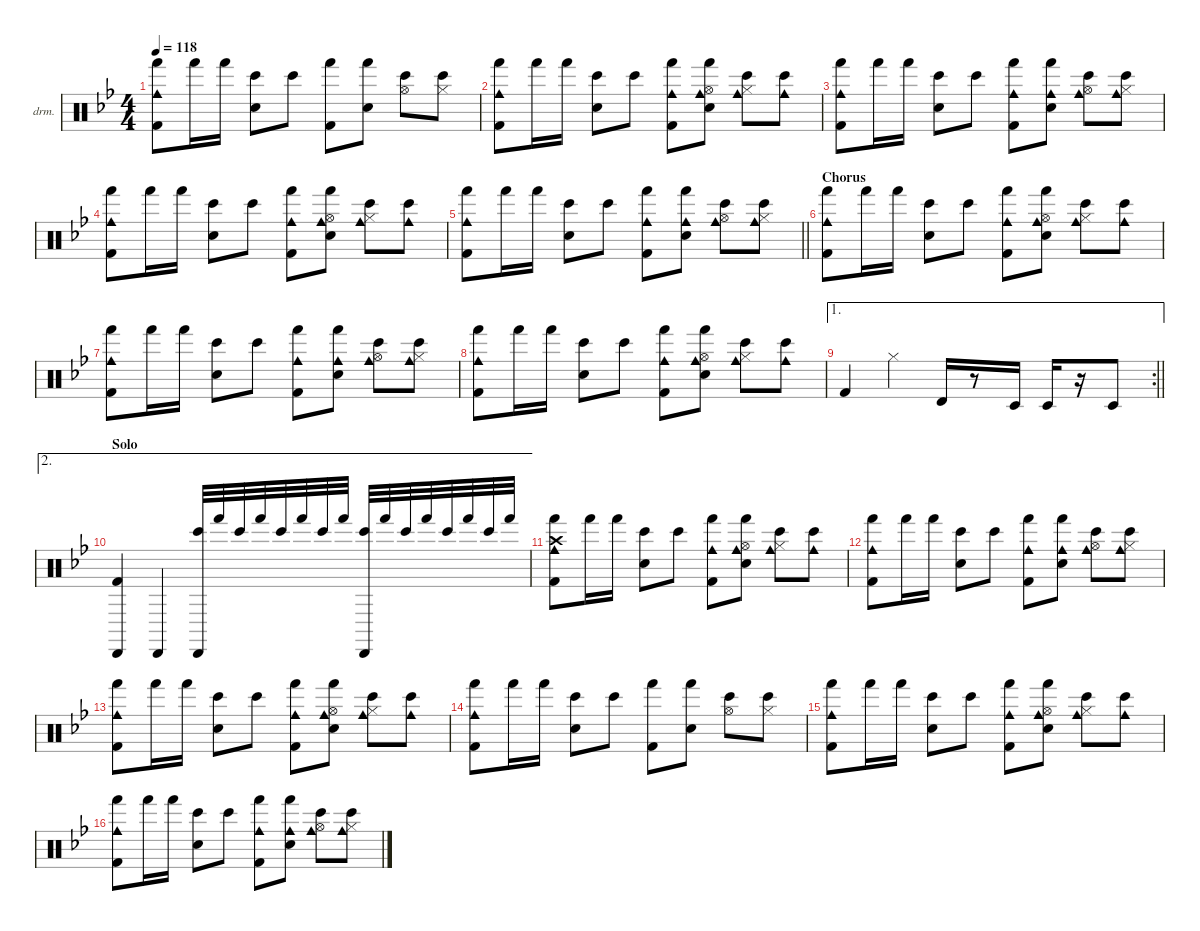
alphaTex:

\defaultSystemsLayout 4
\hideDynamics
\bracketExtendMode nobrackets
\firstSystemTrackNameOrientation horizontal
\otherSystemsTrackNameOrientation horizontal
\track ("Percussion" "drm.") {instrument percussion}
\staff {score}
\articulation defaults
\ts (4 4)
\tempo 118
\clef neutral
\ks gminor
("Cowbell medium (hit)"{acc forcenatural} "Hand (hit)"{acc forcenatural} "Kick (hit) 2"{acc forcenatural}).8{dy f} "Hand (hit)"{acc forcenatural}.16 "Hand (hit)"{acc forcenatural}.16 ("Bongo High (hit)"{acc forcenatural} "Snare (hit) 2"{acc forcenatural}).8 "Bongo High (hit)"{acc forcenatural}.8 ("Hand (hit)"{acc forcenatural} "Kick (hit) 2"{acc forcenatural}).8 ("Hand (hit)"{acc forcenatural} "Snare (hit) 2"{acc forcenatural}).8 ("Bongo High (hit)"{acc forcenatural} "Hi-Hat (open)"{acc forcenatural}).8 ("Bongo High (hit)"{acc forcenatural} "Hi-Hat (closed)"{acc forcenatural}).8 |
("Cowbell medium (hit)"{acc forcenatural} "Hand (hit)"{acc forcenatural} "Kick (hit) 2"{acc forcenatural}).8 "Hand (hit)"{acc forcenatural}.16 "Hand (hit)"{acc forcenatural}.16 ("Bongo High (hit)"{acc forcenatural} "Snare (hit) 2"{acc forcenatural}).8 "Bongo High (hit)"{acc forcenatural}.8 ("Cowbell medium (hit)"{acc forcenatural} "Hand (hit)"{acc forcenatural} "Kick (hit) 2"{acc forcenatural}).8 ("Cowbell medium (hit)"{acc forcenatural} "Hand (hit)"{acc forcenatural} "Snare (hit) 2"{acc forcenatural} "Hi-Hat (open)"{acc forcenatural}).8 ("Cowbell medium (hit)"{acc forcenatural} "Bongo High (hit)"{acc forcenatural} "Hi-Hat (closed)"{acc forcenatural}).8 ("Cowbell medium (hit)"{acc forcenatural} "Bongo High (hit)"{acc forcenatural}).8 |
("Cowbell medium (hit)"{acc forcenatural} "Hand (hit)"{acc forcenatural} "Kick (hit) 2"{acc forcenatural}).8 "Hand (hit)"{acc forcenatural}.16 "Hand (hit)"{acc forcenatural}.16 ("Bongo High (hit)"{acc forcenatural} "Snare (hit) 2"{acc forcenatural}).8 "Bongo High (hit)"{acc forcenatural}.8 ("Cowbell medium (hit)"{acc forcenatural} "Hand (hit)"{acc forcenatural} "Kick (hit) 2"{acc forcenatural}).8 ("Cowbell medium (hit)"{acc forcenatural} "Hand (hit)"{acc forcenatural} "Snare (hit) 2"{acc forcenatural}).8 ("Cowbell medium (hit)"{acc forcenatural} "Bongo High (hit)"{acc forcenatural} "Hi-Hat (open)"{acc forcenatural}).8 ("Cowbell medium (hit)"{acc forcenatural} "Bongo High (hit)"{acc forcenatural} "Hi-Hat (closed)"{acc forcenatural}).8 |
("Cowbell medium (hit)"{acc forcenatural} "Hand (hit)"{acc forcenatural} "Kick (hit) 2"{acc forcenatural}).8 "Hand (hit)"{acc forcenatural}.16 "Hand (hit)"{acc forcenatural}.16 ("Bongo High (hit)"{acc forcenatural} "Snare (hit) 2"{acc forcenatural}).8 "Bongo High (hit)"{acc forcenatural}.8 ("Cowbell medium (hit)"{acc forcenatural} "Hand (hit)"{acc forcenatural} "Kick (hit) 2"{acc forcenatural}).8 ("Cowbell medium (hit)"{acc forcenatural} "Hand (hit)"{acc forcenatural} "Snare (hit) 2"{acc forcenatural} "Hi-Hat (open)"{acc forcenatural}).8 ("Cowbell medium (hit)"{acc forcenatural} "Bongo High (hit)"{acc forcenatural} "Hi-Hat (closed)"{acc forcenatural}).8 ("Cowbell medium (hit)"{acc forcenatural} "Bongo High (hit)"{acc forcenatural}).8 |
\barLineRight lightlight
("Cowbell medium (hit)"{acc forcenatural} "Hand (hit)"{acc forcenatural} "Kick (hit) 2"{acc forcenatural}).8 "Hand (hit)"{acc forcenatural}.16 "Hand (hit)"{acc forcenatural}.16 ("Bongo High (hit)"{acc forcenatural} "Snare (hit) 2"{acc forcenatural}).8 "Bongo High (hit)"{acc forcenatural}.8 ("Cowbell medium (hit)"{acc forcenatural} "Hand (hit)"{acc forcenatural} "Kick (hit) 2"{acc forcenatural}).8 ("Cowbell medium (hit)"{acc forcenatural} "Hand (hit)"{acc forcenatural} "Snare (hit) 2"{acc forcenatural}).8 ("Cowbell medium (hit)"{acc forcenatural} "Bongo High (hit)"{acc forcenatural} "Hi-Hat (open)"{acc forcenatural}).8 ("Cowbell medium (hit)"{acc forcenatural} "Bongo High (hit)"{acc forcenatural} "Hi-Hat (closed)"{acc forcenatural}).8 |
\section ("" "Chorus")
("Cowbell medium (hit)"{acc forcenatural} "Hand (hit)"{acc forcenatural} "Kick (hit) 2"{acc forcenatural}).8 "Hand (hit)"{acc forcenatural}.16 "Hand (hit)"{acc forcenatural}.16 ("Bongo High (hit)"{acc forcenatural} "Snare (hit) 2"{acc forcenatural}).8 "Bongo High (hit)"{acc forcenatural}.8 ("Cowbell medium (hit)"{acc forcenatural} "Hand (hit)"{acc forcenatural} "Kick (hit) 2"{acc forcenatural}).8 ("Cowbell medium (hit)"{acc forcenatural} "Hand (hit)"{acc forcenatural} "Snare (hit) 2"{acc forcenatural} "Hi-Hat (open)"{acc forcenatural}).8 ("Cowbell medium (hit)"{acc forcenatural} "Bongo High (hit)"{acc forcenatural} "Hi-Hat (closed)"{acc forcenatural}).8 ("Cowbell medium (hit)"{acc forcenatural} "Bongo High (hit)"{acc forcenatural}).8 |
("Cowbell medium (hit)"{acc forcenatural} "Hand (hit)"{acc forcenatural} "Kick (hit) 2"{acc forcenatural}).8 "Hand (hit)"{acc forcenatural}.16 "Hand (hit)"{acc forcenatural}.16 ("Bongo High (hit)"{acc forcenatural} "Snare (hit) 2"{acc forcenatural}).8 "Bongo High (hit)"{acc forcenatural}.8 ("Cowbell medium (hit)"{acc forcenatural} "Hand (hit)"{acc forcenatural} "Kick (hit) 2"{acc forcenatural}).8 ("Cowbell medium (hit)"{acc forcenatural} "Hand (hit)"{acc forcenatural} "Snare (hit) 2"{acc forcenatural}).8 ("Cowbell medium (hit)"{acc forcenatural} "Bongo High (hit)"{acc forcenatural} "Hi-Hat (open)"{acc forcenatural}).8 ("Cowbell medium (hit)"{acc forcenatural} "Bongo High (hit)"{acc forcenatural} "Hi-Hat (closed)"{acc forcenatural}).8 |
("Cowbell medium (hit)"{acc forcenatural} "Hand (hit)"{acc forcenatural} "Kick (hit) 2"{acc forcenatural}).8 "Hand (hit)"{acc forcenatural}.16 "Hand (hit)"{acc forcenatural}.16 ("Bongo High (hit)"{acc forcenatural} "Snare (hit) 2"{acc forcenatural}).8 "Bongo High (hit)"{acc forcenatural}.8 ("Cowbell medium (hit)"{acc forcenatural} "Hand (hit)"{acc forcenatural} "Kick (hit) 2"{acc forcenatural}).8 ("Cowbell medium (hit)"{acc forcenatural} "Hand (hit)"{acc forcenatural} "Snare (hit) 2"{acc forcenatural} "Hi-Hat (open)"{acc forcenatural}).8 ("Cowbell medium (hit)"{acc forcenatural} "Bongo High (hit)"{acc forcenatural} "Hi-Hat (closed)"{acc forcenatural}).8 ("Cowbell medium (hit)"{acc forcenatural} "Bongo High (hit)"{acc forcenatural}).8 |
\ae 1
\rc 2
\barLineRight lightlight "Kick (hit) 2"{acc forcenatural}.4 "Hi-Hat (closed)"{acc forcenatural}.4 "Timbale high (hit)"{acc forcenatural}.16
r.8 "Timbale low (hit)"{acc forcenatural}.16 "Timbale low (hit)"{acc forcenatural}.16 r.16 "Timbale low (hit)"{acc forcenatural}.8 |
\ae 2
\section ("" "Solo")
("Cabasa (hit)"{acc forcenatural} "Kick (hit) 2"{acc forcenatural}).4 "Cabasa (hit)"{acc forcenatural}.4 ("Cabasa (hit)"{acc forcenatural} "Bongo High (hit)"{acc forcenatural}).32 "Hand (hit)"{acc forcenatural}.32 "Bongo High (hit)"{acc forcenatural}.32 "Hand (hit)"{acc forcenatural}.32 "Bongo High (hit)"{acc forcenatural}.32 "Hand (hit)"{acc forcenatural}.32 "Bongo High (hit)"{acc forcenatural}.32 "Hand (hit)"{acc forcenatural}.32 ("Cabasa (hit)"{acc forcenatural} "Bongo High (hit)"{acc forcenatural}).32 "Hand (hit)"{acc forcenatural}.32 "Bongo High (hit)"{acc forcenatural}.32 "Hand (hit)"{acc forcenatural}.32 "Bongo High (hit)"{acc forcenatural}.32 "Hand (hit)"{acc forcenatural}.32 "Bongo High (hit)"{acc forcenatural}.32 "Hand (hit)"{acc forcenatural}.32 |
("Cowbell medium (hit)"{acc forcenatural} "Hand (hit)"{acc forcenatural} "Crash high (hit)"{acc forcenatural} "Kick (hit) 2"{acc forcenatural}).8 "Hand (hit)"{acc forcenatural}.16 "Hand (hit)"{acc forcenatural}.16 ("Bongo High (hit)"{acc forcenatural} "Snare (hit) 2"{acc forcenatural}).8 "Bongo High (hit)"{acc forcenatural}.8 ("Cowbell medium (hit)"{acc forcenatural} "Hand (hit)"{acc forcenatural} "Kick (hit) 2"{acc forcenatural}).8 ("Cowbell medium (hit)"{acc forcenatural} "Hand (hit)"{acc forcenatural} "Snare (hit) 2"{acc forcenatural} "Hi-Hat (open)"{acc forcenatural}).8 ("Cowbell medium (hit)"{acc forcenatural} "Bongo High (hit)"{acc forcenatural} "Hi-Hat (closed)"{acc forcenatural}).8 ("Cowbell medium (hit)"{acc forcenatural} "Bongo High (hit)"{acc forcenatural}).8 |
("Cowbell medium (hit)"{acc forcenatural} "Hand (hit)"{acc forcenatural} "Kick (hit) 2"{acc forcenatural}).8 "Hand (hit)"{acc forcenatural}.16 "Hand (hit)"{acc forcenatural}.16 ("Bongo High (hit)"{acc forcenatural} "Snare (hit) 2"{acc forcenatural}).8 "Bongo High (hit)"{acc forcenatural}.8 ("Cowbell medium (hit)"{acc forcenatural} "Hand (hit)"{acc forcenatural} "Kick (hit) 2"{acc forcenatural}).8 ("Cowbell medium (hit)"{acc forcenatural} "Hand (hit)"{acc forcenatural} "Snare (hit) 2"{acc forcenatural}).8 ("Cowbell medium (hit)"{acc forcenatural} "Bongo High (hit)"{acc forcenatural} "Hi-Hat (open)"{acc forcenatural}).8 ("Cowbell medium (hit)"{acc forcenatural} "Bongo High (hit)"{acc forcenatural} "Hi-Hat (closed)"{acc forcenatural}).8 |
("Cowbell medium (hit)"{acc forcenatural} "Hand (hit)"{acc forcenatural} "Kick (hit) 2"{acc forcenatural}).8 "Hand (hit)"{acc forcenatural}.16 "Hand (hit)"{acc forcenatural}.16 ("Bongo High (hit)"{acc forcenatural} "Snare (hit) 2"{acc forcenatural}).8 "Bongo High (hit)"{acc forcenatural}.8 ("Cowbell medium (hit)"{acc forcenatural} "Hand (hit)"{acc forcenatural} "Kick (hit) 2"{acc forcenatural}).8 ("Cowbell medium (hit)"{acc forcenatural} "Hand (hit)"{acc forcenatural} "Snare (hit) 2"{acc forcenatural} "Hi-Hat (open)"{acc forcenatural}).8 ("Cowbell medium (hit)"{acc forcenatural} "Bongo High (hit)"{acc forcenatural} "Hi-Hat (closed)"{acc forcenatural}).8 ("Cowbell medium (hit)"{acc forcenatural} "Bongo High (hit)"{acc forcenatural}).8 |
("Cowbell medium (hit)"{acc forcenatural} "Hand (hit)"{acc forcenatural} "Kick (hit) 2"{acc forcenatural}).8 "Hand (hit)"{acc forcenatural}.16 "Hand (hit)"{acc forcenatural}.16 ("Bongo High (hit)"{acc forcenatural} "Snare (hit) 2"{acc forcenatural}).8 "Bongo High (hit)"{acc forcenatural}.8 ("Hand (hit)"{acc forcenatural} "Kick (hit) 2"{acc forcenatural}).8 ("Hand (hit)"{acc forcenatural} "Snare (hit) 2"{acc forcenatural}).8 ("Bongo High (hit)"{acc forcenatural} "Hi-Hat (open)"{acc forcenatural}).8 ("Bongo High (hit)"{acc forcenatural} "Hi-Hat (closed)"{acc forcenatural}).8 |
("Cowbell medium (hit)"{acc forcenatural} "Hand (hit)"{acc forcenatural} "Kick (hit) 2"{acc forcenatural}).8 "Hand (hit)"{acc forcenatural}.16 "Hand (hit)"{acc forcenatural}.16 ("Bongo High (hit)"{acc forcenatural} "Snare (hit) 2"{acc forcenatural}).8 "Bongo High (hit)"{acc forcenatural}.8 ("Cowbell medium (hit)"{acc forcenatural} "Hand (hit)"{acc forcenatural} "Kick (hit) 2"{acc forcenatural}).8 ("Cowbell medium (hit)"{acc forcenatural} "Hand (hit)"{acc forcenatural} "Snare (hit) 2"{acc forcenatural} "Hi-Hat (open)"{acc forcenatural}).8 ("Cowbell medium (hit)"{acc forcenatural} "Bongo High (hit)"{acc forcenatural} "Hi-Hat (closed)"{acc forcenatural}).8 ("Cowbell medium (hit)"{acc forcenatural} "Bongo High (hit)"{acc forcenatural}).8 |
("Cowbell medium (hit)"{acc forcenatural} "Hand (hit)"{acc forcenatural} "Kick (hit) 2"{acc forcenatural}).8 "Hand (hit)"{acc forcenatural}.16 "Hand (hit)"{acc forcenatural}.16 ("Bongo High (hit)"{acc forcenatural} "Snare (hit) 2"{acc forcenatural}).8 "Bongo High (hit)"{acc forcenatural}.8 ("Cowbell medium (hit)"{acc forcenatural} "Hand (hit)"{acc forcenatural} "Kick (hit) 2"{acc forcenatural}).8 ("Cowbell medium (hit)"{acc forcenatural} "Hand (hit)"{acc forcenatural} "Snare (hit) 2"{acc forcenatural}).8 ("Cowbell medium (hit)"{acc forcenatural} "Bongo High (hit)"{acc forcenatural} "Hi-Hat (open)"{acc forcenatural}).8 ("Cowbell medium (hit)"{acc forcenatural} "Bongo High (hit)"{acc forcenatural} "Hi-Hat (closed)"{acc forcenatural}).8
